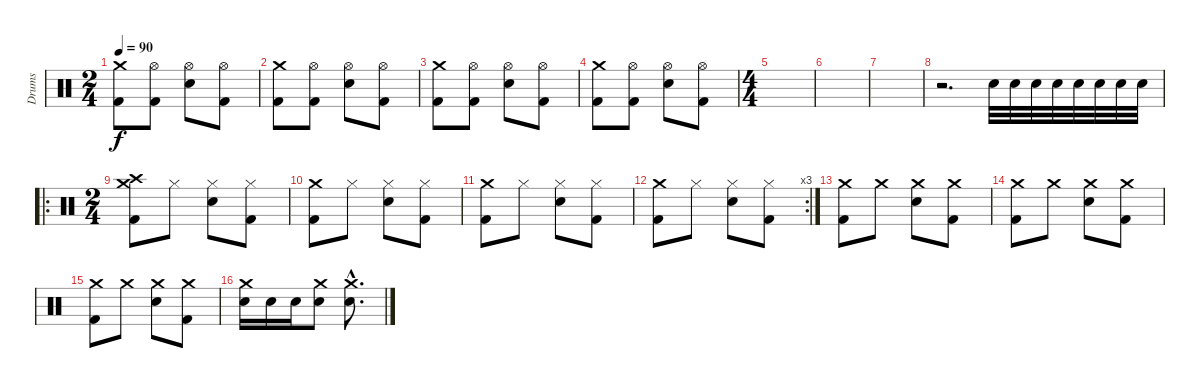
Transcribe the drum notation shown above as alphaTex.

\track ("Drums" "Drums") {instrument percussion}
\staff {score}
\articulation defaults
\ts (2 4)
\tempo 90
\clef neutral
\ks c
("Crash medium (hit)" "Kick (hit) 2").8{dy f} ("Hi-Hat (open)" "Kick (hit) 2").8 ("Hi-Hat (open)" "Snare (hit) 2").8 ("Hi-Hat (open)" "Kick (hit) 2").8 |
("Crash medium (hit)" "Kick (hit) 2").8 ("Hi-Hat (open)" "Kick (hit) 2").8 ("Hi-Hat (open)" "Snare (hit) 2").8 ("Hi-Hat (open)" "Kick (hit) 2").8 |
("Crash medium (hit)" "Kick (hit) 2").8 ("Hi-Hat (open)" "Kick (hit) 2").8 ("Hi-Hat (open)" "Snare (hit) 2").8 ("Hi-Hat (open)" "Kick (hit) 2").8 |
("Crash medium (hit)" "Kick (hit) 2").8 ("Hi-Hat (open)" "Kick (hit) 2").8 ("Hi-Hat (open)" "Snare (hit) 2").8 ("Hi-Hat (open)" "Kick (hit) 2").8 |
\ts (4 4)
|
|
|
r.2{d} "Snare (hit) 2".32 "Snare (hit) 2".32 "Snare (hit) 2".32 "Snare (hit) 2".32 "Snare (hit) 2".32 "Snare (hit) 2".32 "Snare (hit) 2".32 "Snare (hit) 2".32 |
\ro
\ts (2 4)
("Crash high (hit)" "Crash medium (hit)" "Kick (hit) 2").8 "Hi-Hat (closed)".8 ("Hi-Hat (closed)" "Snare (hit) 2").8 ("Hi-Hat (closed)" "Kick (hit) 2").8 |
("Crash medium (hit)" "Kick (hit) 2").8 "Hi-Hat (closed)".8 ("Hi-Hat (closed)" "Snare (hit) 2").8 ("Hi-Hat (closed)" "Kick (hit) 2").8 |
("Crash medium (hit)" "Kick (hit) 2").8 "Hi-Hat (closed)".8 ("Hi-Hat (closed)" "Snare (hit) 2").8 ("Hi-Hat (closed)" "Kick (hit) 2").8 |
\rc 3
("Crash medium (hit)" "Kick (hit) 2").8 "Hi-Hat (closed)".8 ("Hi-Hat (closed)" "Snare (hit) 2").8 ("Hi-Hat (closed)" "Kick (hit) 2").8 |
("Crash medium (hit)" "Kick (hit) 2").8 "Crash medium (hit)".8 ("Crash medium (hit)" "Snare (hit) 2").8 ("Crash medium (hit)" "Kick (hit) 2").8 |
("Crash medium (hit)" "Kick (hit) 2").8 "Crash medium (hit)".8 ("Crash medium (hit)" "Snare (hit) 2").8 ("Crash medium (hit)" "Kick (hit) 2").8 |
("Crash medium (hit)" "Kick (hit) 2").8 "Crash medium (hit)".8 ("Crash medium (hit)" "Snare (hit) 2").8 ("Crash medium (hit)" "Kick (hit) 2").8 |
("Crash medium (hit)" "Snare (hit) 2").16 "Snare (hit) 2".16 "Snare (hit) 2".16 ("Crash medium (hit)" "Snare (hit) 2").8 ("Crash medium (hit)"{hac} "Snare (hit) 2"{hac}).8{d}
